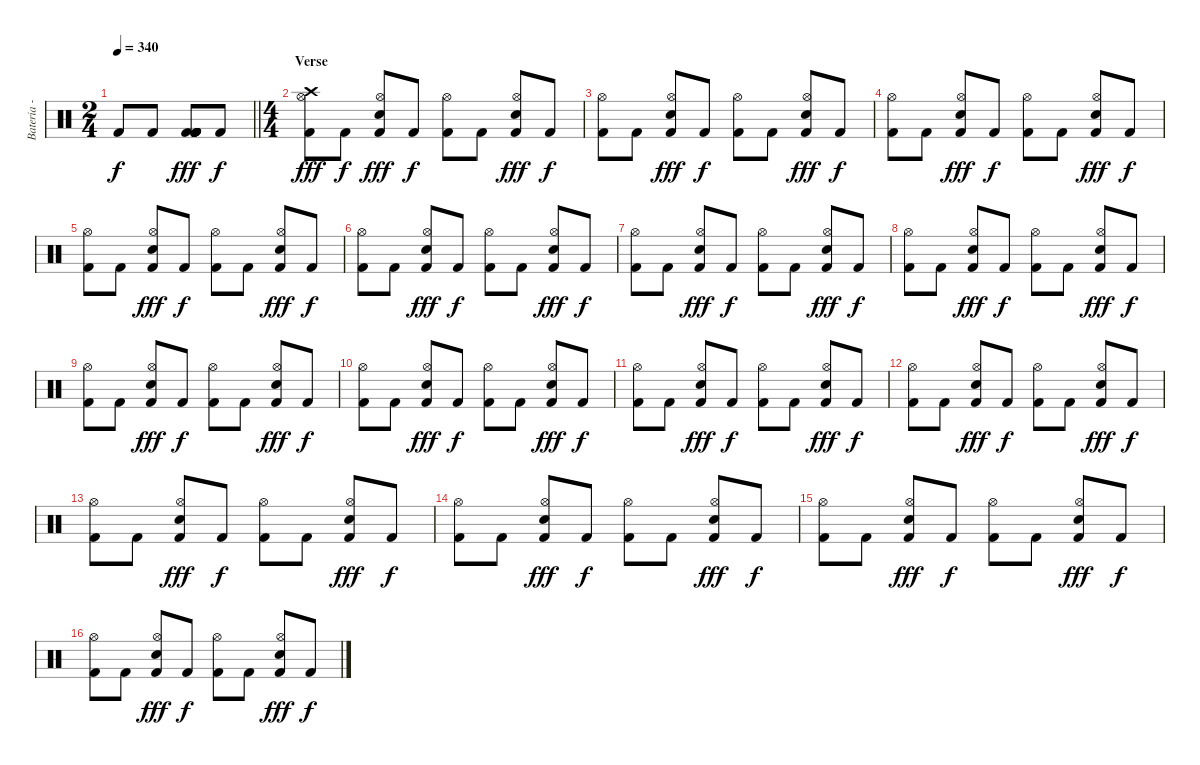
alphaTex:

\track ("Bateria - Larzon" "Bateria - ") {instrument percussion}
\staff {score}
\articulation defaults
\ts (2 4)
\tempo 340
\clef neutral
\barLineRight lightlight
\ks c "Kick (hit) 2".8{dy f} "Kick (hit) 2".8
("Kick (hit) 2" "Kick (hit) 2" "Kick (hit) 2" "Kick (hit) 2" "Kick (hit) 2" "Kick (hit) 2").8{dy fff} "Kick (hit) 2".8{dy f} |
\ts (4 4)
\section ("" "Verse")
("Crash high (hit)" "Kick (hit) 2" "Hi-Hat (open)").8{dy fff} "Kick (hit) 2".8{dy f} ("Kick (hit) 2" "Hi-Hat (open)" "Snare (hit) 2").8{dy fff} "Kick (hit) 2".8{dy f} ("Kick (hit) 2" "Hi-Hat (open)").8 "Kick (hit) 2".8 ("Kick (hit) 2" "Hi-Hat (open)" "Snare (hit) 2").8{dy fff} "Kick (hit) 2".8{dy f} |
("Kick (hit) 2" "Hi-Hat (open)").8 "Kick (hit) 2".8 ("Kick (hit) 2" "Hi-Hat (open)" "Snare (hit) 2").8{dy fff} "Kick (hit) 2".8{dy f} ("Kick (hit) 2" "Hi-Hat (open)").8 "Kick (hit) 2".8 ("Kick (hit) 2" "Hi-Hat (open)" "Snare (hit) 2").8{dy fff} "Kick (hit) 2".8{dy f} |
("Kick (hit) 2" "Hi-Hat (open)").8 "Kick (hit) 2".8 ("Kick (hit) 2" "Hi-Hat (open)" "Snare (hit) 2").8{dy fff} "Kick (hit) 2".8{dy f} ("Kick (hit) 2" "Hi-Hat (open)").8 "Kick (hit) 2".8 ("Kick (hit) 2" "Hi-Hat (open)" "Snare (hit) 2").8{dy fff} "Kick (hit) 2".8{dy f} |
("Kick (hit) 2" "Hi-Hat (open)").8 "Kick (hit) 2".8 ("Kick (hit) 2" "Hi-Hat (open)" "Snare (hit) 2").8{dy fff} "Kick (hit) 2".8{dy f} ("Kick (hit) 2" "Hi-Hat (open)").8 "Kick (hit) 2".8 ("Kick (hit) 2" "Hi-Hat (open)" "Snare (hit) 2").8{dy fff} "Kick (hit) 2".8{dy f} |
("Kick (hit) 2" "Hi-Hat (open)").8 "Kick (hit) 2".8 ("Kick (hit) 2" "Hi-Hat (open)" "Snare (hit) 2").8{dy fff} "Kick (hit) 2".8{dy f} ("Kick (hit) 2" "Hi-Hat (open)").8 "Kick (hit) 2".8 ("Kick (hit) 2" "Hi-Hat (open)" "Snare (hit) 2").8{dy fff} "Kick (hit) 2".8{dy f} |
("Kick (hit) 2" "Hi-Hat (open)").8 "Kick (hit) 2".8 ("Kick (hit) 2" "Hi-Hat (open)" "Snare (hit) 2").8{dy fff} "Kick (hit) 2".8{dy f} ("Kick (hit) 2" "Hi-Hat (open)").8 "Kick (hit) 2".8 ("Kick (hit) 2" "Hi-Hat (open)" "Snare (hit) 2").8{dy fff} "Kick (hit) 2".8{dy f} |
("Kick (hit) 2" "Hi-Hat (open)").8 "Kick (hit) 2".8 ("Kick (hit) 2" "Hi-Hat (open)" "Snare (hit) 2").8{dy fff} "Kick (hit) 2".8{dy f} ("Kick (hit) 2" "Hi-Hat (open)").8 "Kick (hit) 2".8 ("Kick (hit) 2" "Hi-Hat (open)" "Snare (hit) 2").8{dy fff} "Kick (hit) 2".8{dy f} |
("Kick (hit) 2" "Hi-Hat (open)").8 "Kick (hit) 2".8 ("Kick (hit) 2" "Hi-Hat (open)" "Snare (hit) 2").8{dy fff} "Kick (hit) 2".8{dy f} ("Kick (hit) 2" "Hi-Hat (open)").8 "Kick (hit) 2".8 ("Kick (hit) 2" "Hi-Hat (open)" "Snare (hit) 2").8{dy fff} "Kick (hit) 2".8{dy f} |
("Kick (hit) 2" "Hi-Hat (open)").8 "Kick (hit) 2".8 ("Kick (hit) 2" "Hi-Hat (open)" "Snare (hit) 2").8{dy fff} "Kick (hit) 2".8{dy f} ("Kick (hit) 2" "Hi-Hat (open)").8 "Kick (hit) 2".8 ("Kick (hit) 2" "Hi-Hat (open)" "Snare (hit) 2").8{dy fff} "Kick (hit) 2".8{dy f} |
("Kick (hit) 2" "Hi-Hat (open)").8 "Kick (hit) 2".8 ("Kick (hit) 2" "Hi-Hat (open)" "Snare (hit) 2").8{dy fff} "Kick (hit) 2".8{dy f} ("Kick (hit) 2" "Hi-Hat (open)").8 "Kick (hit) 2".8 ("Kick (hit) 2" "Hi-Hat (open)" "Snare (hit) 2").8{dy fff} "Kick (hit) 2".8{dy f} |
("Kick (hit) 2" "Hi-Hat (open)").8 "Kick (hit) 2".8 ("Kick (hit) 2" "Hi-Hat (open)" "Snare (hit) 2").8{dy fff} "Kick (hit) 2".8{dy f} ("Kick (hit) 2" "Hi-Hat (open)").8 "Kick (hit) 2".8 ("Kick (hit) 2" "Hi-Hat (open)" "Snare (hit) 2").8{dy fff} "Kick (hit) 2".8{dy f} |
("Kick (hit) 2" "Hi-Hat (open)").8 "Kick (hit) 2".8 ("Kick (hit) 2" "Hi-Hat (open)" "Snare (hit) 2").8{dy fff} "Kick (hit) 2".8{dy f} ("Kick (hit) 2" "Hi-Hat (open)").8 "Kick (hit) 2".8 ("Kick (hit) 2" "Hi-Hat (open)" "Snare (hit) 2").8{dy fff} "Kick (hit) 2".8{dy f} |
("Kick (hit) 2" "Hi-Hat (open)").8 "Kick (hit) 2".8 ("Kick (hit) 2" "Hi-Hat (open)" "Snare (hit) 2").8{dy fff} "Kick (hit) 2".8{dy f} ("Kick (hit) 2" "Hi-Hat (open)").8 "Kick (hit) 2".8 ("Kick (hit) 2" "Hi-Hat (open)" "Snare (hit) 2").8{dy fff} "Kick (hit) 2".8{dy f} |
("Kick (hit) 2" "Hi-Hat (open)").8 "Kick (hit) 2".8 ("Kick (hit) 2" "Hi-Hat (open)" "Snare (hit) 2").8{dy fff} "Kick (hit) 2".8{dy f} ("Kick (hit) 2" "Hi-Hat (open)").8 "Kick (hit) 2".8 ("Kick (hit) 2" "Hi-Hat (open)" "Snare (hit) 2").8{dy fff} "Kick (hit) 2".8{dy f} |
("Kick (hit) 2" "Hi-Hat (open)").8 "Kick (hit) 2".8 ("Kick (hit) 2" "Hi-Hat (open)" "Snare (hit) 2").8{dy fff} "Kick (hit) 2".8{dy f} ("Kick (hit) 2" "Hi-Hat (open)").8 "Kick (hit) 2".8 ("Kick (hit) 2" "Hi-Hat (open)" "Snare (hit) 2").8{dy fff} "Kick (hit) 2".8{dy f}
